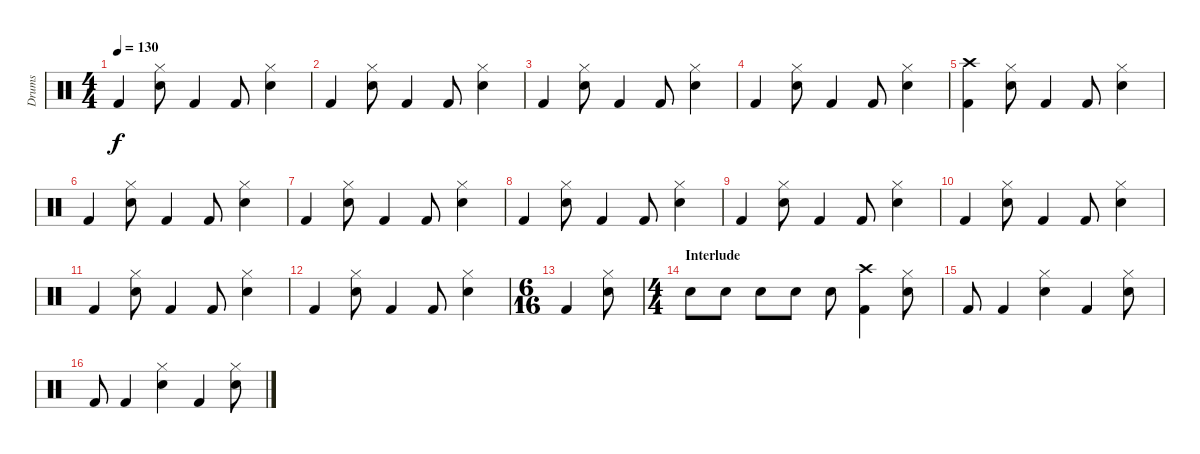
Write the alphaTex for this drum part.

\track ("Drums" "Drums") {instrument percussion}
\staff {score}
\articulation defaults
\ts (4 4)
\tempo 130
\clef neutral
\ks c "Kick (hit) 2".4{dy f}
("Hi-Hat (closed)" "Snare (hit) 2").8 "Kick (hit) 2".4 "Kick (hit) 2".8 ("Hi-Hat (closed)" "Snare (hit) 2").4 |
"Kick (hit) 2".4 ("Hi-Hat (closed)" "Snare (hit) 2").8 "Kick (hit) 2".4 "Kick (hit) 2".8 ("Hi-Hat (closed)" "Snare (hit) 2").4 |
"Kick (hit) 2".4 ("Hi-Hat (closed)" "Snare (hit) 2").8 "Kick (hit) 2".4 "Kick (hit) 2".8 ("Hi-Hat (closed)" "Snare (hit) 2").4 |
"Kick (hit) 2".4 ("Hi-Hat (closed)" "Snare (hit) 2").8 "Kick (hit) 2".4 "Kick (hit) 2".8 ("Hi-Hat (closed)" "Snare (hit) 2").4 |
("Crash high (hit)" "Kick (hit) 2").4 ("Hi-Hat (closed)" "Snare (hit) 2").8 "Kick (hit) 2".4 "Kick (hit) 2".8 ("Hi-Hat (closed)" "Snare (hit) 2").4 |
"Kick (hit) 2".4 ("Hi-Hat (closed)" "Snare (hit) 2").8 "Kick (hit) 2".4 "Kick (hit) 2".8 ("Hi-Hat (closed)" "Snare (hit) 2").4 |
"Kick (hit) 2".4 ("Hi-Hat (closed)" "Snare (hit) 2").8 "Kick (hit) 2".4 "Kick (hit) 2".8 ("Hi-Hat (closed)" "Snare (hit) 2").4 |
"Kick (hit) 2".4 ("Hi-Hat (closed)" "Snare (hit) 2").8 "Kick (hit) 2".4 "Kick (hit) 2".8 ("Hi-Hat (closed)" "Snare (hit) 2").4 |
"Kick (hit) 2".4 ("Hi-Hat (closed)" "Snare (hit) 2").8 "Kick (hit) 2".4 "Kick (hit) 2".8 ("Hi-Hat (closed)" "Snare (hit) 2").4 |
"Kick (hit) 2".4 ("Hi-Hat (closed)" "Snare (hit) 2").8 "Kick (hit) 2".4 "Kick (hit) 2".8 ("Hi-Hat (closed)" "Snare (hit) 2").4 |
"Kick (hit) 2".4 ("Hi-Hat (closed)" "Snare (hit) 2").8 "Kick (hit) 2".4 "Kick (hit) 2".8 ("Hi-Hat (closed)" "Snare (hit) 2").4 |
"Kick (hit) 2".4 ("Hi-Hat (closed)" "Snare (hit) 2").8 "Kick (hit) 2".4 "Kick (hit) 2".8 ("Hi-Hat (closed)" "Snare (hit) 2").4 |
\ts (6 16)
"Kick (hit) 2".4 ("Hi-Hat (closed)" "Snare (hit) 2").8 |
\ts (4 4)
\section ("" "Interlude")
"Snare (hit) 2".8 "Snare (hit) 2".8 "Snare (hit) 2".8 "Snare (hit) 2".8 "Snare (hit) 2".8 ("Crash high (hit)" "Kick (hit) 2").4 ("Snare (hit) 2" "Hi-Hat (closed)").8 |
"Kick (hit) 2".8 "Kick (hit) 2".4 ("Hi-Hat (closed)" "Snare (hit) 2").4 "Kick (hit) 2".4 ("Hi-Hat (closed)" "Snare (hit) 2").8 |
"Kick (hit) 2".8 "Kick (hit) 2".4 ("Hi-Hat (closed)" "Snare (hit) 2").4 "Kick (hit) 2".4 ("Hi-Hat (closed)" "Snare (hit) 2").8
